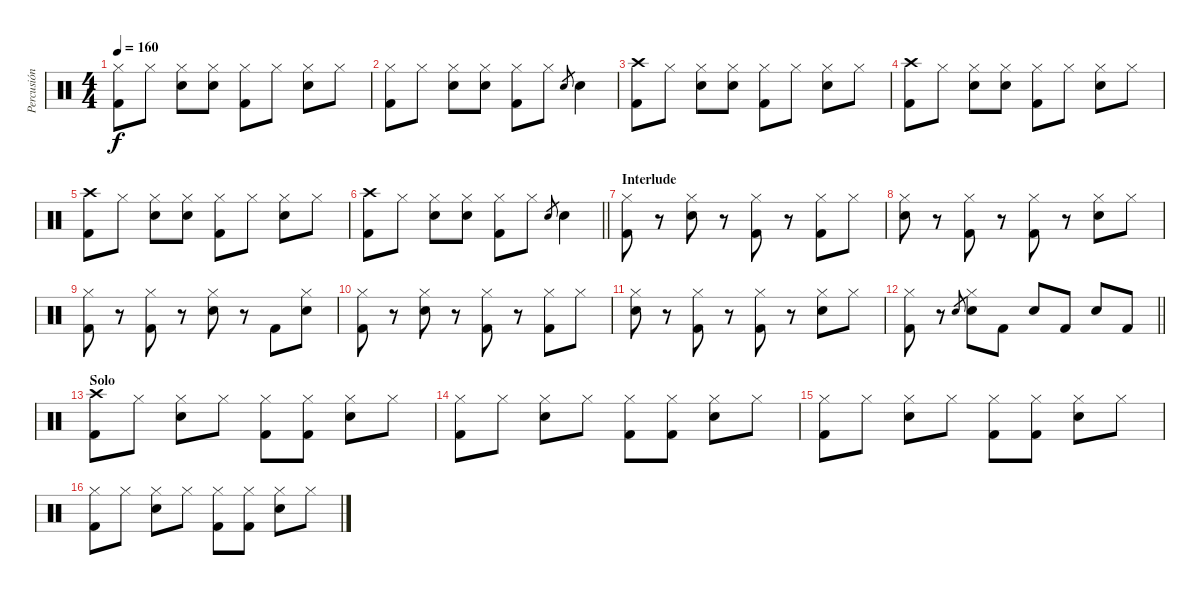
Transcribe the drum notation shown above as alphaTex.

\track ("Percusión" "Percusión") {instrument percussion}
\staff {score}
\articulation defaults
\ts (4 4)
\tempo 160
\clef neutral
\ks c
("Hi-Hat (closed)" "Kick (hit) 2").8{dy f} "Hi-Hat (closed)".8 ("Hi-Hat (closed)" "Snare (hit) 2").8 ("Hi-Hat (closed)" "Snare (hit) 2").8 ("Hi-Hat (closed)" "Kick (hit) 2").8 "Hi-Hat (closed)".8 ("Hi-Hat (closed)" "Snare (hit) 2").8 "Hi-Hat (closed)".8 |
("Hi-Hat (closed)" "Kick (hit) 2").8 "Hi-Hat (closed)".8 ("Hi-Hat (closed)" "Snare (hit) 2").8 ("Hi-Hat (closed)" "Snare (hit) 2").8 ("Hi-Hat (closed)" "Kick (hit) 2").8 "Hi-Hat (closed)".8 "Snare (hit) 2".8{gr} "Snare (hit) 2".4 |
("Crash high (hit)" "Kick (hit) 2").8 "Hi-Hat (closed)".8 ("Hi-Hat (closed)" "Snare (hit) 2").8 ("Hi-Hat (closed)" "Snare (hit) 2").8 ("Hi-Hat (closed)" "Kick (hit) 2").8 "Hi-Hat (closed)".8 ("Hi-Hat (closed)" "Snare (hit) 2").8 "Hi-Hat (closed)".8 |
("Crash high (hit)" "Kick (hit) 2").8 "Hi-Hat (closed)".8 ("Hi-Hat (closed)" "Snare (hit) 2").8 ("Hi-Hat (closed)" "Snare (hit) 2").8 ("Hi-Hat (closed)" "Kick (hit) 2").8 "Hi-Hat (closed)".8 ("Hi-Hat (closed)" "Snare (hit) 2").8 "Hi-Hat (closed)".8 |
("Crash high (hit)" "Kick (hit) 2").8 "Hi-Hat (closed)".8 ("Hi-Hat (closed)" "Snare (hit) 2").8 ("Hi-Hat (closed)" "Snare (hit) 2").8 ("Hi-Hat (closed)" "Kick (hit) 2").8 "Hi-Hat (closed)".8 ("Hi-Hat (closed)" "Snare (hit) 2").8 "Hi-Hat (closed)".8 |
\barLineRight lightlight
("Crash high (hit)" "Kick (hit) 2").8 "Hi-Hat (closed)".8 ("Hi-Hat (closed)" "Snare (hit) 2").8 ("Hi-Hat (closed)" "Snare (hit) 2").8 ("Hi-Hat (closed)" "Kick (hit) 2").8 "Hi-Hat (closed)".8 "Snare (hit) 2".8{gr} "Snare (hit) 2".4 |
\section ("" "Interlude")
("Hi-Hat (closed)" "Kick (hit) 2").8 r.8 ("Hi-Hat (closed)" "Snare (hit) 2").8 r.8 ("Hi-Hat (closed)" "Kick (hit) 2").8 r.8 ("Hi-Hat (closed)" "Kick (hit) 2").8 "Hi-Hat (closed)".8 |
("Hi-Hat (closed)" "Snare (hit) 2").8 r.8 ("Hi-Hat (closed)" "Kick (hit) 2").8 r.8 ("Hi-Hat (closed)" "Kick (hit) 2").8 r.8 ("Hi-Hat (closed)" "Snare (hit) 2").8 "Hi-Hat (closed)".8 |
("Hi-Hat (closed)" "Kick (hit) 2").8 r.8 ("Hi-Hat (closed)" "Kick (hit) 2").8 r.8 ("Hi-Hat (closed)" "Snare (hit) 2").8 r.8 "Kick (hit) 2".8 ("Hi-Hat (closed)" "Snare (hit) 2").8 |
("Hi-Hat (closed)" "Kick (hit) 2").8 r.8 ("Hi-Hat (closed)" "Snare (hit) 2").8 r.8 ("Hi-Hat (closed)" "Kick (hit) 2").8 r.8 ("Hi-Hat (closed)" "Kick (hit) 2").8 "Hi-Hat (closed)".8 |
("Hi-Hat (closed)" "Snare (hit) 2").8 r.8 ("Hi-Hat (closed)" "Kick (hit) 2").8 r.8 ("Hi-Hat (closed)" "Kick (hit) 2").8 r.8 ("Hi-Hat (closed)" "Snare (hit) 2").8 "Hi-Hat (closed)".8 |
\barLineRight lightlight
("Hi-Hat (closed)" "Kick (hit) 2").8 r.8 "Snare (hit) 2".8{gr} ("Hi-Hat (closed)" "Snare (hit) 2").8 "Kick (hit) 2".8 "Electric Snare (hit)".8 "Kick (hit) 2".8 "Electric Snare (hit)".8 "Kick (hit) 2".8 |
\section ("" "Solo")
("Crash high (hit)" "Kick (hit) 2").8 "Hi-Hat (closed)".8 ("Hi-Hat (closed)" "Snare (hit) 2").8 "Hi-Hat (closed)".8 ("Hi-Hat (closed)" "Kick (hit) 2").8 ("Hi-Hat (closed)" "Kick (hit) 2").8 ("Hi-Hat (closed)" "Snare (hit) 2").8 "Hi-Hat (closed)".8 |
("Hi-Hat (closed)" "Kick (hit) 2").8 "Hi-Hat (closed)".8 ("Hi-Hat (closed)" "Snare (hit) 2").8 "Hi-Hat (closed)".8 ("Hi-Hat (closed)" "Kick (hit) 2").8 ("Hi-Hat (closed)" "Kick (hit) 2").8 ("Hi-Hat (closed)" "Snare (hit) 2").8 "Hi-Hat (closed)".8 |
("Hi-Hat (closed)" "Kick (hit) 2").8 "Hi-Hat (closed)".8 ("Hi-Hat (closed)" "Snare (hit) 2").8 "Hi-Hat (closed)".8 ("Hi-Hat (closed)" "Kick (hit) 2").8 ("Hi-Hat (closed)" "Kick (hit) 2").8 ("Hi-Hat (closed)" "Snare (hit) 2").8 "Hi-Hat (closed)".8 |
("Hi-Hat (closed)" "Kick (hit) 2").8 "Hi-Hat (closed)".8 ("Hi-Hat (closed)" "Snare (hit) 2").8 "Hi-Hat (closed)".8 ("Hi-Hat (closed)" "Kick (hit) 2").8 ("Hi-Hat (closed)" "Kick (hit) 2").8 ("Hi-Hat (closed)" "Snare (hit) 2").8 "Hi-Hat (closed)".8
